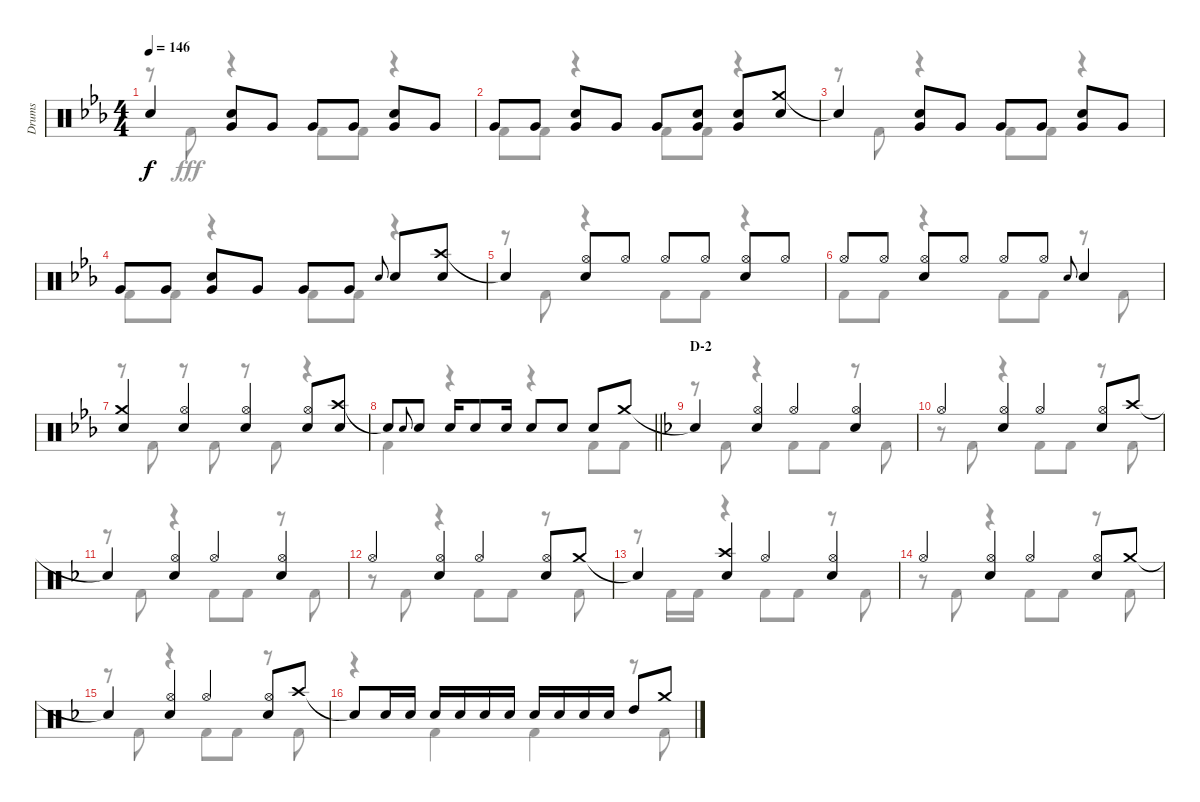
\track ("Drums" "Drums") {instrument percussion}
\staff {score}
\articulation defaults
\voice
\ts (4 4)
\tempo 146
\clef neutral
\ks eb "Snare (hit)"{t}.4{dy f}
("Snare (hit) 2" "Very Low Tom (hit)").8 "Very Low Tom (hit)".8 "Very Low Tom (hit)".8 "Very Low Tom (hit)".8 ("Snare (hit) 2" "Very Low Tom (hit)").8 "Very Low Tom (hit)".8 |
"Very Low Tom (hit)".8 "Very Low Tom (hit)".8 ("Snare (hit) 2" "Very Low Tom (hit)").8 "Very Low Tom (hit)".8 "Very Low Tom (hit)".8 ("Snare (hit) 2" "Very Low Tom (hit)").8 ("Snare (hit) 2" "Very Low Tom (hit)").8 ("Crash medium (hit)" "Snare (hit) 2").8 |
"Snare (hit)"{t}.4 ("Snare (hit) 2" "Very Low Tom (hit)").8 "Very Low Tom (hit)".8 "Very Low Tom (hit)".8 "Very Low Tom (hit)".8 ("Snare (hit) 2" "Very Low Tom (hit)").8 "Very Low Tom (hit)".8 |
"Very Low Tom (hit)".8 "Very Low Tom (hit)".8 ("Snare (hit) 2" "Very Low Tom (hit)").8 "Very Low Tom (hit)".8 "Very Low Tom (hit)".8 "Very Low Tom (hit)".8 "Snare (hit) 2".8{gr onbeat} "Snare (hit) 2".8 ("Crash high (hit)" "Snare (hit) 2").8 |
"Snare (hit)"{t}.4 ("Hi-Hat (open)" "Snare (hit) 2").8 "Hi-Hat (open)".8 "Hi-Hat (open)".8 "Hi-Hat (open)".8 ("Hi-Hat (open)" "Snare (hit) 2").8 "Hi-Hat (open)".8 |
"Hi-Hat (open)".8 "Hi-Hat (open)".8 ("Hi-Hat (open)" "Snare (hit) 2").8 "Hi-Hat (open)".8 "Hi-Hat (open)".8 "Hi-Hat (open)".8 "Snare (hit) 2".8{gr onbeat} "Snare (hit) 2".4 |
("Crash medium (hit)" "Snare (hit) 2").4 ("Hi-Hat (open)" "Snare (hit) 2").4 ("Hi-Hat (open)" "Snare (hit) 2").4 ("Hi-Hat (open)" "Snare (hit) 2").8 ("Crash high (hit)" "Snare (hit) 2").8 |
\barLineRight lightlight "Snare (hit)"{t}.8 "Snare (hit) 2".8{gr onbeat} "Snare (hit) 2".8 "Snare (hit) 2".16 "Snare (hit) 2".8 "Snare (hit) 2".16 "Snare (hit) 2".8 "Snare (hit) 2".8 "Snare (hit) 2".8 "Crash medium (hit)".8
|
\section ("" "D-2")
\ks f "Snare (hit)"{t}.4
("Hi-Hat (open)" "Snare (hit) 2").4 "Hi-Hat (open)".4 ("Hi-Hat (open)" "Snare (hit) 2").4 |
"Hi-Hat (open)".4 ("Hi-Hat (open)" "Snare (hit) 2").4 "Hi-Hat (open)".4 ("Hi-Hat (open)" "Snare (hit) 2").8 "Crash high (hit)".8 |
"Snare (hit)"{t}.4 ("Hi-Hat (open)" "Snare (hit) 2").4 "Hi-Hat (open)".4 ("Hi-Hat (open)" "Snare (hit) 2").4 |
"Hi-Hat (open)".4 ("Hi-Hat (open)" "Snare (hit) 2").4 "Hi-Hat (open)".4 ("Hi-Hat (open)" "Snare (hit) 2").8 "Crash medium (hit)".8 |
"Snare (hit)"{t}.4 ("Crash high (hit)" "Snare (hit) 2").4 "Hi-Hat (open)".4 ("Hi-Hat (open)" "Snare (hit) 2").4 |
"Hi-Hat (open)".4 ("Hi-Hat (open)" "Snare (hit) 2").4 "Hi-Hat (open)".4 ("Hi-Hat (open)" "Snare (hit) 2").8 "Crash medium (hit)".8 |
"Snare (hit)"{t}.4 ("Hi-Hat (open)" "Snare (hit) 2").4 "Hi-Hat (open)".4 ("Hi-Hat (open)" "Snare (hit) 2").8 "Crash high (hit)".8 |
"Snare (hit)"{t}.8 "Snare (hit) 2".16 "Snare (hit) 2".16 "Snare (hit) 2".16 "Snare (hit) 2".16 "Snare (hit) 2".16 "Snare (hit) 2".16 "Snare (hit) 2".16 "Snare (hit) 2".16 "Snare (hit) 2".16 "Snare (hit) 2".16 "High Tom (hit)".8 "Crash medium (hit)".8
\voice
\clef neutral
\ottava regular
\simile none
\ks eb
r.8{dy fff} "Kick (hit) 2".8 r.4 "Kick (hit) 2".8 "Kick (hit) 2".8 r.4 |
"Kick (hit) 2".8 "Kick (hit) 2".8 r.4 "Kick (hit) 2".8 "Kick (hit) 2".8 r.4 |
r.8 "Kick (hit) 2".8 r.4 "Kick (hit) 2".8 "Kick (hit) 2".8 r.4 |
"Kick (hit) 2".8 "Kick (hit) 2".8 r.4 "Kick (hit) 2".8 "Kick (hit) 2".8 r.4 |
r.8 "Kick (hit) 2".8 r.4 "Kick (hit) 2".8 "Kick (hit) 2".8 r.4 |
"Kick (hit) 2".8 "Kick (hit) 2".8 r.4 "Kick (hit) 2".8 "Kick (hit) 2".8 r.8 "Kick (hit) 2".8 |
r.8 "Kick (hit) 2".8 r.8 "Kick (hit) 2".8 r.8 "Kick (hit) 2".8 r.4 |
\barLineRight lightlight "Kick (hit) 2".4
r.4 r.4 "Kick (hit) 2".8 "Kick (hit) 2".8 |
\ks f
r.8 "Kick (hit) 2".8 r.4 "Kick (hit) 2".8 "Kick (hit) 2".8 r.8 "Kick (hit) 2".8 |
r.8 "Kick (hit) 2".8 r.4 "Kick (hit) 2".8 "Kick (hit) 2".8 r.8 "Kick (hit) 2".8 |
r.8 "Kick (hit) 2".8 r.4 "Kick (hit) 2".8 "Kick (hit) 2".8 r.8 "Kick (hit) 2".8 |
r.8 "Kick (hit) 2".8 r.4 "Kick (hit) 2".8 "Kick (hit) 2".8 r.8 "Kick (hit) 2".8 |
r.8 "Kick (hit) 2".16 "Kick (hit) 2".16 r.4 "Kick (hit) 2".8 "Kick (hit) 2".8 r.8 "Kick (hit) 2".8 |
r.8 "Kick (hit) 2".8 r.4 "Kick (hit) 2".8 "Kick (hit) 2".8 r.8 "Kick (hit) 2".8 |
r.8 "Kick (hit) 2".8 r.4 "Kick (hit) 2".8 "Kick (hit) 2".8 r.8 "Kick (hit) 2".8 |
r.4 "Kick (hit) 2".4 "Kick (hit) 2".4 r.8 "Kick (hit) 2".8
